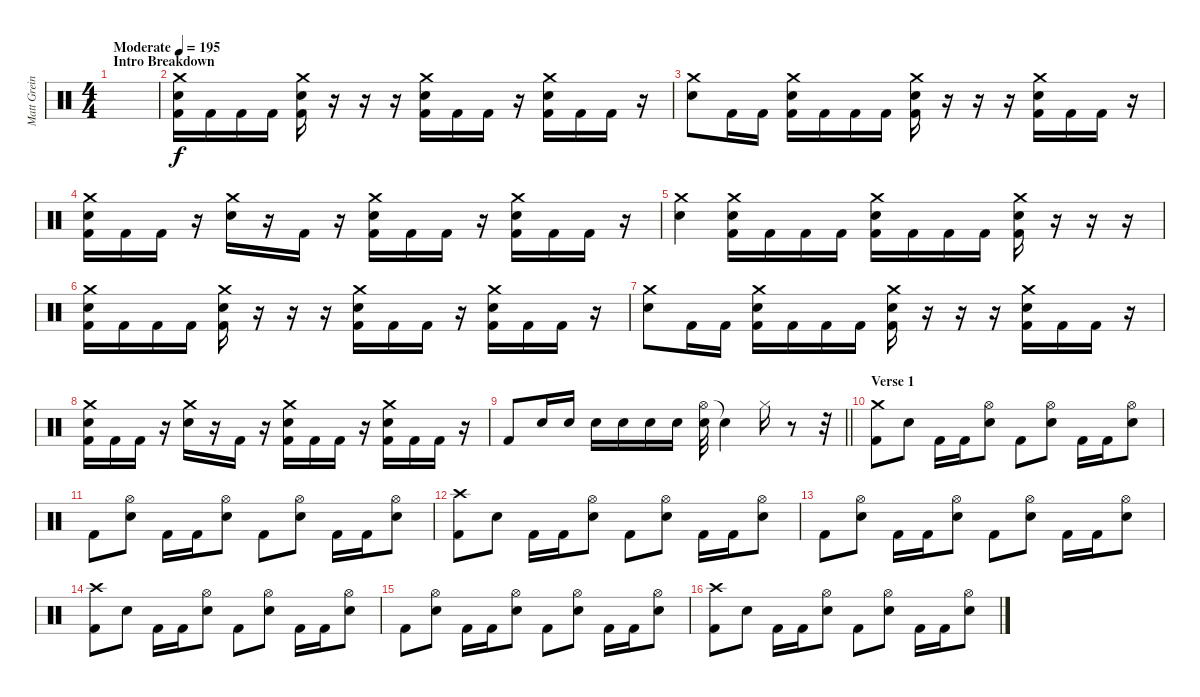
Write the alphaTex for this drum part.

\track ("Matt Greiner" "Matt Grein") {instrument percussion}
\staff {score}
\articulation defaults
\ts (4 4)
\section ("" "Intro Breakdown")
\tempo (195 "Moderate")
\clef neutral
\ks c
|
("Crash medium (hit)" "Electric Snare (hit)" "Kick (hit) 2").16 "Kick (hit) 2".16 "Kick (hit) 2".16 "Kick (hit) 2".16 ("Crash medium (hit)" "Electric Snare (hit)" "Kick (hit) 2").16 r.16 r.16 r.16 ("Crash medium (hit)" "Electric Snare (hit)" "Kick (hit) 2").16 "Kick (hit) 2".16 "Kick (hit) 2".16 r.16 ("Crash medium (hit)" "Electric Snare (hit)" "Kick (hit) 2").16 "Kick (hit) 2".16 "Kick (hit) 2".16 r.16 |
("Crash medium (hit)" "Electric Snare (hit)").8 "Kick (hit) 2".16 "Kick (hit) 2".16 ("Crash medium (hit)" "Electric Snare (hit)" "Kick (hit) 2").16 "Kick (hit) 2".16 "Kick (hit) 2".16 "Kick (hit) 2".16 ("Crash medium (hit)" "Electric Snare (hit)" "Kick (hit) 2").16 r.16 r.16 r.16 ("Crash medium (hit)" "Electric Snare (hit)" "Kick (hit) 2").16 "Kick (hit) 2".16 "Kick (hit) 2".16 r.16 |
("Crash medium (hit)" "Electric Snare (hit)" "Kick (hit) 2").16 "Kick (hit) 2".16 "Kick (hit) 2".16 r.16 ("Crash medium (hit)" "Electric Snare (hit)").16 r.16 "Kick (hit) 2".16 r.16 ("Crash medium (hit)" "Electric Snare (hit)" "Kick (hit) 2").16 "Kick (hit) 2".16 "Kick (hit) 2".16 r.16 ("Crash medium (hit)" "Electric Snare (hit)" "Kick (hit) 2").16 "Kick (hit) 2".16 "Kick (hit) 2".16 r.16 |
("Crash medium (hit)" "Electric Snare (hit)").4 ("Crash medium (hit)" "Electric Snare (hit)" "Kick (hit) 2").16 "Kick (hit) 2".16 "Kick (hit) 2".16 "Kick (hit) 2".16 ("Crash medium (hit)" "Electric Snare (hit)" "Kick (hit) 2").16 "Kick (hit) 2".16 "Kick (hit) 2".16 "Kick (hit) 2".16 ("Crash medium (hit)" "Electric Snare (hit)" "Kick (hit) 2").16 r.16 r.16 r.16 |
("Crash medium (hit)" "Electric Snare (hit)" "Kick (hit) 2").16 "Kick (hit) 2".16 "Kick (hit) 2".16 "Kick (hit) 2".16 ("Crash medium (hit)" "Electric Snare (hit)" "Kick (hit) 2").16 r.16 r.16 r.16 ("Crash medium (hit)" "Electric Snare (hit)" "Kick (hit) 2").16 "Kick (hit) 2".16 "Kick (hit) 2".16 r.16 ("Crash medium (hit)" "Electric Snare (hit)" "Kick (hit) 2").16 "Kick (hit) 2".16 "Kick (hit) 2".16 r.16 |
("Crash medium (hit)" "Electric Snare (hit)").8 "Kick (hit) 2".16 "Kick (hit) 2".16 ("Crash medium (hit)" "Electric Snare (hit)" "Kick (hit) 2").16 "Kick (hit) 2".16 "Kick (hit) 2".16 "Kick (hit) 2".16 ("Crash medium (hit)" "Electric Snare (hit)" "Kick (hit) 2").16 r.16 r.16 r.16 ("Crash medium (hit)" "Electric Snare (hit)" "Kick (hit) 2").16 "Kick (hit) 2".16 "Kick (hit) 2".16 r.16 |
("Crash medium (hit)" "Electric Snare (hit)" "Kick (hit) 2").16 "Kick (hit) 2".16 "Kick (hit) 2".16 r.16 ("Crash medium (hit)" "Electric Snare (hit)").16 r.16 "Kick (hit) 2".16 r.16 ("Crash medium (hit)" "Electric Snare (hit)" "Kick (hit) 2").16 "Kick (hit) 2".16 "Kick (hit) 2".16 r.16 ("Crash medium (hit)" "Electric Snare (hit)" "Kick (hit) 2").16 "Kick (hit) 2".16 "Kick (hit) 2".16 r.16 |
\barLineRight lightlight "Kick (hit) 2".8 "Electric Snare (hit)".16 "Electric Snare (hit)".16 "Electric Snare (hit)".16 "Electric Snare (hit)".16 "Electric Snare (hit)".16 "Electric Snare (hit)".16
("Hi-Hat (open)" "Electric Snare (hit)").32 "Snare (hit)"{t}.4 "Hi-Hat (closed)".16 r.8 r.32 |
\section ("" "Verse 1")
("Crash medium (hit)" "Kick (hit) 2").8 "Electric Snare (hit)".8 "Kick (hit) 2".16 "Kick (hit) 2".16 ("Hi-Hat (open)" "Electric Snare (hit)").8 "Kick (hit) 2".8 ("Hi-Hat (open)" "Electric Snare (hit)").8 "Kick (hit) 2".16 "Kick (hit) 2".16 ("Hi-Hat (open)" "Electric Snare (hit)").8 |
"Kick (hit) 2".8 ("Hi-Hat (open)" "Electric Snare (hit)").8 "Kick (hit) 2".16 "Kick (hit) 2".16 ("Hi-Hat (open)" "Electric Snare (hit)").8 "Kick (hit) 2".8 ("Hi-Hat (open)" "Electric Snare (hit)").8 "Kick (hit) 2".16 "Kick (hit) 2".16 ("Hi-Hat (open)" "Electric Snare (hit)").8 |
("Crash high (hit)" "Kick (hit) 2").8 "Electric Snare (hit)".8 "Kick (hit) 2".16 "Kick (hit) 2".16 ("Hi-Hat (open)" "Electric Snare (hit)").8 "Kick (hit) 2".8 ("Hi-Hat (open)" "Electric Snare (hit)").8 "Kick (hit) 2".16 "Kick (hit) 2".16 ("Hi-Hat (open)" "Electric Snare (hit)").8 |
"Kick (hit) 2".8 ("Hi-Hat (open)" "Electric Snare (hit)").8 "Kick (hit) 2".16 "Kick (hit) 2".16 ("Hi-Hat (open)" "Electric Snare (hit)").8 "Kick (hit) 2".8 ("Hi-Hat (open)" "Electric Snare (hit)").8 "Kick (hit) 2".16 "Kick (hit) 2".16 ("Hi-Hat (open)" "Electric Snare (hit)").8 |
("Crash high (hit)" "Kick (hit) 2").8 "Electric Snare (hit)".8 "Kick (hit) 2".16 "Kick (hit) 2".16 ("Hi-Hat (open)" "Electric Snare (hit)").8 "Kick (hit) 2".8 ("Hi-Hat (open)" "Electric Snare (hit)").8 "Kick (hit) 2".16 "Kick (hit) 2".16 ("Hi-Hat (open)" "Electric Snare (hit)").8 |
"Kick (hit) 2".8 ("Hi-Hat (open)" "Electric Snare (hit)").8 "Kick (hit) 2".16 "Kick (hit) 2".16 ("Hi-Hat (open)" "Electric Snare (hit)").8 "Kick (hit) 2".8 ("Hi-Hat (open)" "Electric Snare (hit)").8 "Kick (hit) 2".16 "Kick (hit) 2".16 ("Hi-Hat (open)" "Electric Snare (hit)").8 |
("Crash high (hit)" "Kick (hit) 2").8 "Electric Snare (hit)".8 "Kick (hit) 2".16 "Kick (hit) 2".16 ("Hi-Hat (open)" "Electric Snare (hit)").8 "Kick (hit) 2".8 ("Hi-Hat (open)" "Electric Snare (hit)").8 "Kick (hit) 2".16 "Kick (hit) 2".16 ("Hi-Hat (open)" "Electric Snare (hit)").8
